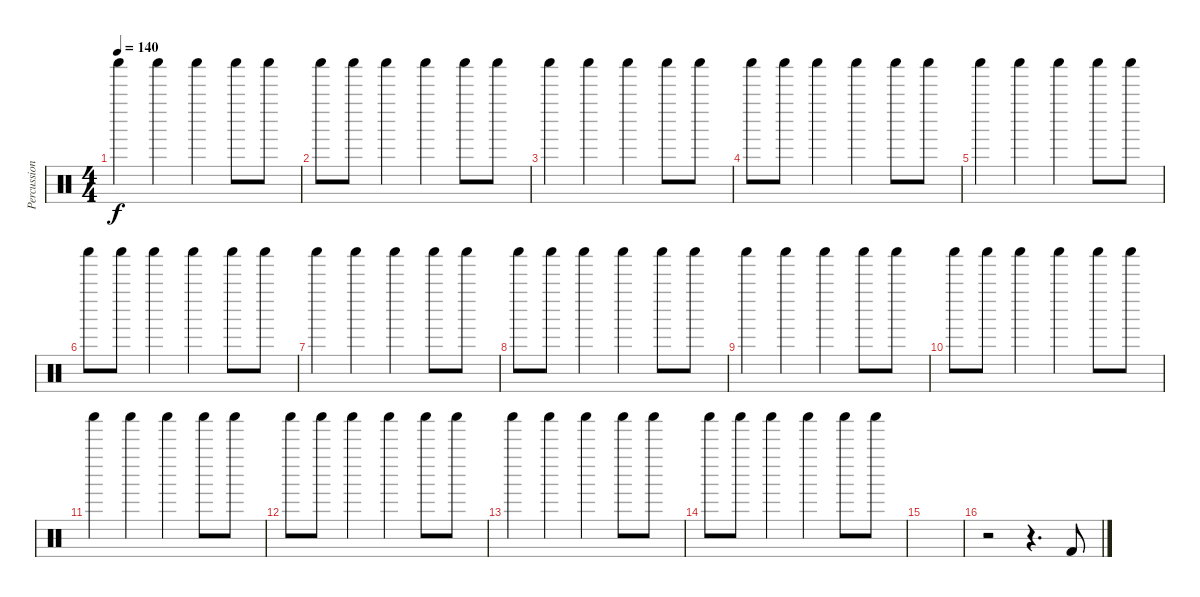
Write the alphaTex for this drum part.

\track ("Percussion" "Percussion") {instrument percussion}
\staff {score}
\articulation defaults
\ts (4 4)
\tempo 140
\clef neutral
\ks c "Shaker (hit)".4{dy f} "Shaker (hit)".4 "Shaker (hit)".4 "Shaker (hit)".8 "Shaker (hit)".8
|
"Shaker (hit)".8 "Shaker (hit)".8 "Shaker (hit)".4 "Shaker (hit)".4 "Shaker (hit)".8 "Shaker (hit)".8 |
"Shaker (hit)".4 "Shaker (hit)".4 "Shaker (hit)".4 "Shaker (hit)".8 "Shaker (hit)".8 |
"Shaker (hit)".8 "Shaker (hit)".8 "Shaker (hit)".4 "Shaker (hit)".4 "Shaker (hit)".8 "Shaker (hit)".8 |
"Shaker (hit)".4 "Shaker (hit)".4 "Shaker (hit)".4 "Shaker (hit)".8 "Shaker (hit)".8 |
"Shaker (hit)".8 "Shaker (hit)".8 "Shaker (hit)".4 "Shaker (hit)".4 "Shaker (hit)".8 "Shaker (hit)".8 |
"Shaker (hit)".4 "Shaker (hit)".4 "Shaker (hit)".4 "Shaker (hit)".8 "Shaker (hit)".8 |
"Shaker (hit)".8 "Shaker (hit)".8 "Shaker (hit)".4 "Shaker (hit)".4 "Shaker (hit)".8 "Shaker (hit)".8 |
"Shaker (hit)".4 "Shaker (hit)".4 "Shaker (hit)".4 "Shaker (hit)".8 "Shaker (hit)".8 |
"Shaker (hit)".8 "Shaker (hit)".8 "Shaker (hit)".4 "Shaker (hit)".4 "Shaker (hit)".8 "Shaker (hit)".8 |
"Shaker (hit)".4 "Shaker (hit)".4 "Shaker (hit)".4 "Shaker (hit)".8 "Shaker (hit)".8 |
"Shaker (hit)".8 "Shaker (hit)".8 "Shaker (hit)".4 "Shaker (hit)".4 "Shaker (hit)".8 "Shaker (hit)".8 |
"Shaker (hit)".4 "Shaker (hit)".4 "Shaker (hit)".4 "Shaker (hit)".8 "Shaker (hit)".8 |
"Shaker (hit)".8 "Shaker (hit)".8 "Shaker (hit)".4 "Shaker (hit)".4 "Shaker (hit)".8 "Shaker (hit)".8 |
|
r.2{volume 16} r.4{d} "Kick (hit) 2".8
